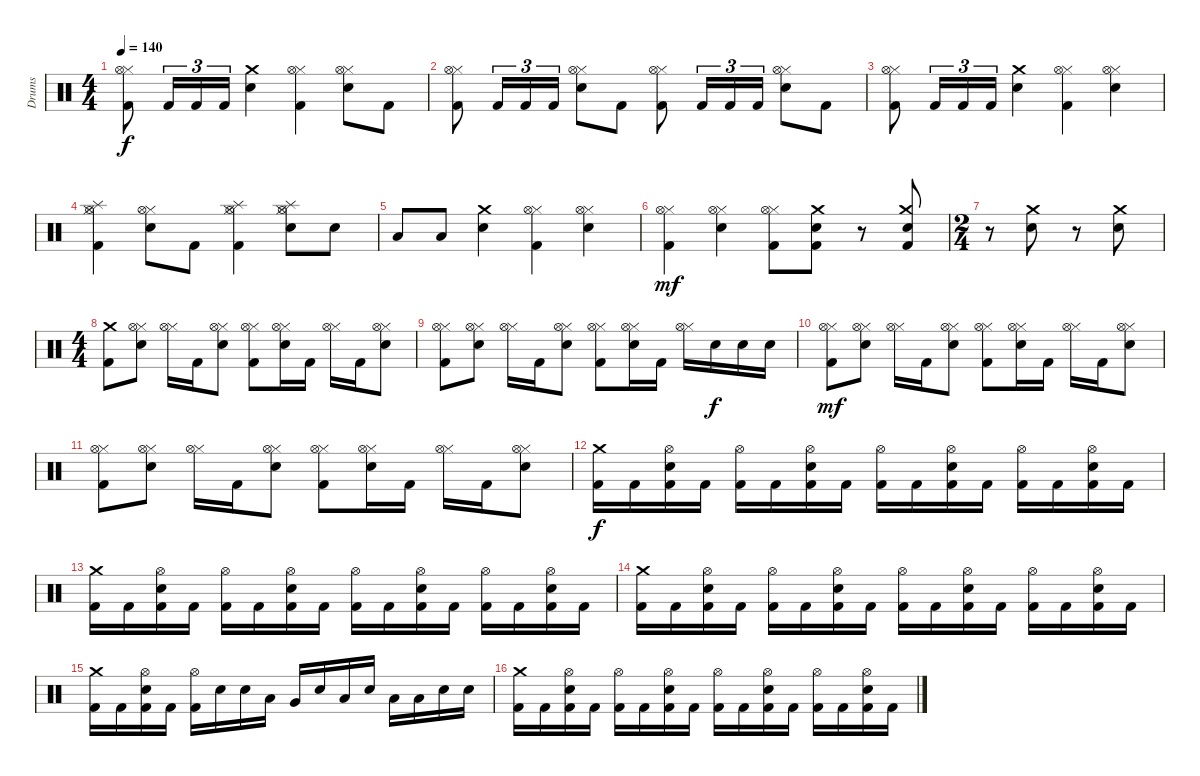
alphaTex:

\track ("Drums" "Drums") {instrument percussion}
\staff {score}
\articulation defaults
\ts (4 4)
\tempo 140
\clef neutral
\ks c
("Hi-Hat (closed)" "Hi-Hat (open)" "Kick (hit) 2").8{dy f} "Kick (hit) 2".16{tu (3 2)} "Kick (hit) 2".16{tu (3 2)} "Kick (hit) 2".16{tu (3 2)} ("Crash medium (hit)" "Electric Snare (hit)").4 ("Hi-Hat (closed)" "Hi-Hat (open)" "Kick (hit) 2").4 ("Hi-Hat (closed)" "Hi-Hat (open)" "Electric Snare (hit)").8 "Kick (hit) 2".8 |
("Hi-Hat (closed)" "Hi-Hat (open)" "Kick (hit) 2").8 "Kick (hit) 2".16{tu (3 2)} "Kick (hit) 2".16{tu (3 2)} "Kick (hit) 2".16{tu (3 2)} ("Hi-Hat (closed)" "Hi-Hat (open)" "Electric Snare (hit)").8 "Kick (hit) 2".8 ("Hi-Hat (closed)" "Hi-Hat (open)" "Kick (hit) 2").8 "Kick (hit) 2".16{tu (3 2)} "Kick (hit) 2".16{tu (3 2)} "Kick (hit) 2".16{tu (3 2)} ("Hi-Hat (closed)" "Hi-Hat (open)" "Electric Snare (hit)").8 "Kick (hit) 2".8 |
("Hi-Hat (closed)" "Hi-Hat (open)" "Kick (hit) 2").8 "Kick (hit) 2".16{tu (3 2)} "Kick (hit) 2".16{tu (3 2)} "Kick (hit) 2".16{tu (3 2)} ("Crash medium (hit)" "Electric Snare (hit)").4 ("Hi-Hat (closed)" "Hi-Hat (open)" "Kick (hit) 2").4 ("Hi-Hat (closed)" "Hi-Hat (open)" "Electric Snare (hit)").4 |
("Hi-Hat (closed)" "Hi-Hat (open)" "Splash (hit)" "Kick (hit) 2").4 ("Hi-Hat (closed)" "Hi-Hat (open)" "Electric Snare (hit)").8 "Kick (hit) 2".8 ("Hi-Hat (closed)" "Hi-Hat (open)" "Splash (hit)" "Kick (hit) 2").4 ("Hi-Hat (closed)" "Hi-Hat (open)" "Splash (hit)" "Electric Snare (hit)").8 "Electric Snare (hit)".8 |
"Low Tom (hit)".8 "Low Tom (hit)".8 ("Crash medium (hit)" "Electric Snare (hit)").4 ("Hi-Hat (closed)" "Hi-Hat (open)" "Kick (hit) 2").4 ("Hi-Hat (closed)" "Hi-Hat (open)" "Electric Snare (hit)").4 |
("Hi-Hat (closed)" "Hi-Hat (open)" "Kick (hit) 2").4{dy mf} ("Hi-Hat (closed)" "Hi-Hat (open)" "Electric Snare (hit)").4 ("Hi-Hat (closed)" "Hi-Hat (open)" "Kick (hit) 2").8 ("Crash medium (hit)" "Electric Snare (hit)" "Kick (hit) 2").8 r.8 ("Crash medium (hit)" "Electric Snare (hit)" "Kick (hit) 2").8 |
\ts (2 4)
r.8 ("Crash medium (hit)" "Electric Snare (hit)").8 r.8 ("Crash medium (hit)" "Electric Snare (hit)").8 |
\ts (4 4)
("Crash medium (hit)" "Kick (hit) 2").8 ("Hi-Hat (closed)" "Hi-Hat (open)" "Electric Snare (hit)").8 ("Hi-Hat (closed)" "Hi-Hat (open)").16 "Kick (hit) 2".16 ("Hi-Hat (closed)" "Hi-Hat (open)" "Electric Snare (hit)").8 ("Hi-Hat (closed)" "Hi-Hat (open)" "Kick (hit) 2").8 ("Hi-Hat (closed)" "Hi-Hat (open)" "Electric Snare (hit)").16 "Kick (hit) 2".16 ("Hi-Hat (closed)" "Hi-Hat (open)").16 "Kick (hit) 2".16 ("Hi-Hat (closed)" "Hi-Hat (open)" "Electric Snare (hit)").8 |
("Hi-Hat (closed)" "Hi-Hat (open)" "Kick (hit) 2").8 ("Hi-Hat (closed)" "Hi-Hat (open)" "Electric Snare (hit)").8 ("Hi-Hat (closed)" "Hi-Hat (open)").16 "Kick (hit) 2".16 ("Hi-Hat (closed)" "Hi-Hat (open)" "Electric Snare (hit)").8 ("Hi-Hat (closed)" "Hi-Hat (open)" "Kick (hit) 2").8 ("Hi-Hat (closed)" "Hi-Hat (open)" "Electric Snare (hit)").16 "Kick (hit) 2".16 ("Hi-Hat (closed)" "Hi-Hat (open)").16 "Electric Snare (hit)".16{dy f} "Electric Snare (hit)".16 "Electric Snare (hit)".16 |
("Hi-Hat (closed)" "Hi-Hat (open)" "Kick (hit) 2").8{dy mf} ("Hi-Hat (closed)" "Hi-Hat (open)" "Electric Snare (hit)").8 ("Hi-Hat (closed)" "Hi-Hat (open)").16 "Kick (hit) 2".16 ("Hi-Hat (closed)" "Hi-Hat (open)" "Electric Snare (hit)").8 ("Hi-Hat (closed)" "Hi-Hat (open)" "Kick (hit) 2").8 ("Hi-Hat (closed)" "Hi-Hat (open)" "Electric Snare (hit)").16 "Kick (hit) 2".16 ("Hi-Hat (closed)" "Hi-Hat (open)").16 "Kick (hit) 2".16 ("Hi-Hat (closed)" "Hi-Hat (open)" "Electric Snare (hit)").8 |
("Hi-Hat (closed)" "Hi-Hat (open)" "Kick (hit) 2").8 ("Hi-Hat (closed)" "Hi-Hat (open)" "Electric Snare (hit)").8 ("Hi-Hat (closed)" "Hi-Hat (open)").16 "Kick (hit) 2".16 ("Hi-Hat (closed)" "Hi-Hat (open)" "Electric Snare (hit)").8 ("Hi-Hat (closed)" "Hi-Hat (open)" "Kick (hit) 2").8 ("Hi-Hat (closed)" "Hi-Hat (open)" "Electric Snare (hit)").16 "Kick (hit) 2".16 ("Hi-Hat (closed)" "Hi-Hat (open)").16 "Kick (hit) 2".16 ("Hi-Hat (closed)" "Hi-Hat (open)" "Electric Snare (hit)").8 |
("Crash medium (hit)" "Kick (hit) 2").16{dy f} "Kick (hit) 2".16 ("Hi-Hat (open)" "Electric Snare (hit)" "Kick (hit) 2").16 "Kick (hit) 2".16 ("Hi-Hat (open)" "Kick (hit) 2").16 "Kick (hit) 2".16 ("Hi-Hat (open)" "Electric Snare (hit)" "Kick (hit) 2").16 "Kick (hit) 2".16 ("Hi-Hat (open)" "Kick (hit) 2").16 "Kick (hit) 2".16 ("Hi-Hat (open)" "Electric Snare (hit)" "Kick (hit) 2").16 "Kick (hit) 2".16 ("Hi-Hat (open)" "Kick (hit) 2").16 "Kick (hit) 2".16 ("Hi-Hat (open)" "Electric Snare (hit)" "Kick (hit) 2").16 "Kick (hit) 2".16 |
("Crash medium (hit)" "Kick (hit) 2").16 "Kick (hit) 2".16 ("Hi-Hat (open)" "Electric Snare (hit)" "Kick (hit) 2").16 "Kick (hit) 2".16 ("Hi-Hat (open)" "Kick (hit) 2").16 "Kick (hit) 2".16 ("Hi-Hat (open)" "Electric Snare (hit)" "Kick (hit) 2").16 "Kick (hit) 2".16 ("Hi-Hat (open)" "Kick (hit) 2").16 "Kick (hit) 2".16 ("Hi-Hat (open)" "Electric Snare (hit)" "Kick (hit) 2").16 "Kick (hit) 2".16 ("Hi-Hat (open)" "Kick (hit) 2").16 "Kick (hit) 2".16 ("Hi-Hat (open)" "Electric Snare (hit)" "Kick (hit) 2").16 "Kick (hit) 2".16 |
("Crash medium (hit)" "Kick (hit) 2").16 "Kick (hit) 2".16 ("Hi-Hat (open)" "Electric Snare (hit)" "Kick (hit) 2").16 "Kick (hit) 2".16 ("Hi-Hat (open)" "Kick (hit) 2").16 "Kick (hit) 2".16 ("Hi-Hat (open)" "Electric Snare (hit)" "Kick (hit) 2").16 "Kick (hit) 2".16 ("Hi-Hat (open)" "Kick (hit) 2").16 "Kick (hit) 2".16 ("Hi-Hat (open)" "Electric Snare (hit)" "Kick (hit) 2").16 "Kick (hit) 2".16 ("Hi-Hat (open)" "Kick (hit) 2").16 "Kick (hit) 2".16 ("Hi-Hat (open)" "Electric Snare (hit)" "Kick (hit) 2").16 "Kick (hit) 2".16 |
("Crash medium (hit)" "Kick (hit) 2").16 "Kick (hit) 2".16 ("Hi-Hat (open)" "Electric Snare (hit)" "Kick (hit) 2").16 "Kick (hit) 2".16 ("Hi-Hat (open)" "Kick (hit) 2").16 "Electric Snare (hit)".16 "Electric Snare (hit)".16 "Low Tom (hit)".16 "Very Low Tom (hit)".16 "Electric Snare (hit)".16 "Low Tom (hit)".16 "Electric Snare (hit)".16 "Low Floor Tom (hit)".16 "Low Floor Tom (hit)".16 "Electric Snare (hit)".16 "Electric Snare (hit)".16 |
("Crash medium (hit)" "Kick (hit) 2").16 "Kick (hit) 2".16 ("Hi-Hat (open)" "Electric Snare (hit)" "Kick (hit) 2").16 "Kick (hit) 2".16 ("Hi-Hat (open)" "Kick (hit) 2").16 "Kick (hit) 2".16 ("Hi-Hat (open)" "Electric Snare (hit)" "Kick (hit) 2").16 "Kick (hit) 2".16 ("Hi-Hat (open)" "Kick (hit) 2").16 "Kick (hit) 2".16 ("Hi-Hat (open)" "Electric Snare (hit)" "Kick (hit) 2").16 "Kick (hit) 2".16 ("Hi-Hat (open)" "Kick (hit) 2").16 "Kick (hit) 2".16 ("Hi-Hat (open)" "Electric Snare (hit)" "Kick (hit) 2").16 "Kick (hit) 2".16
